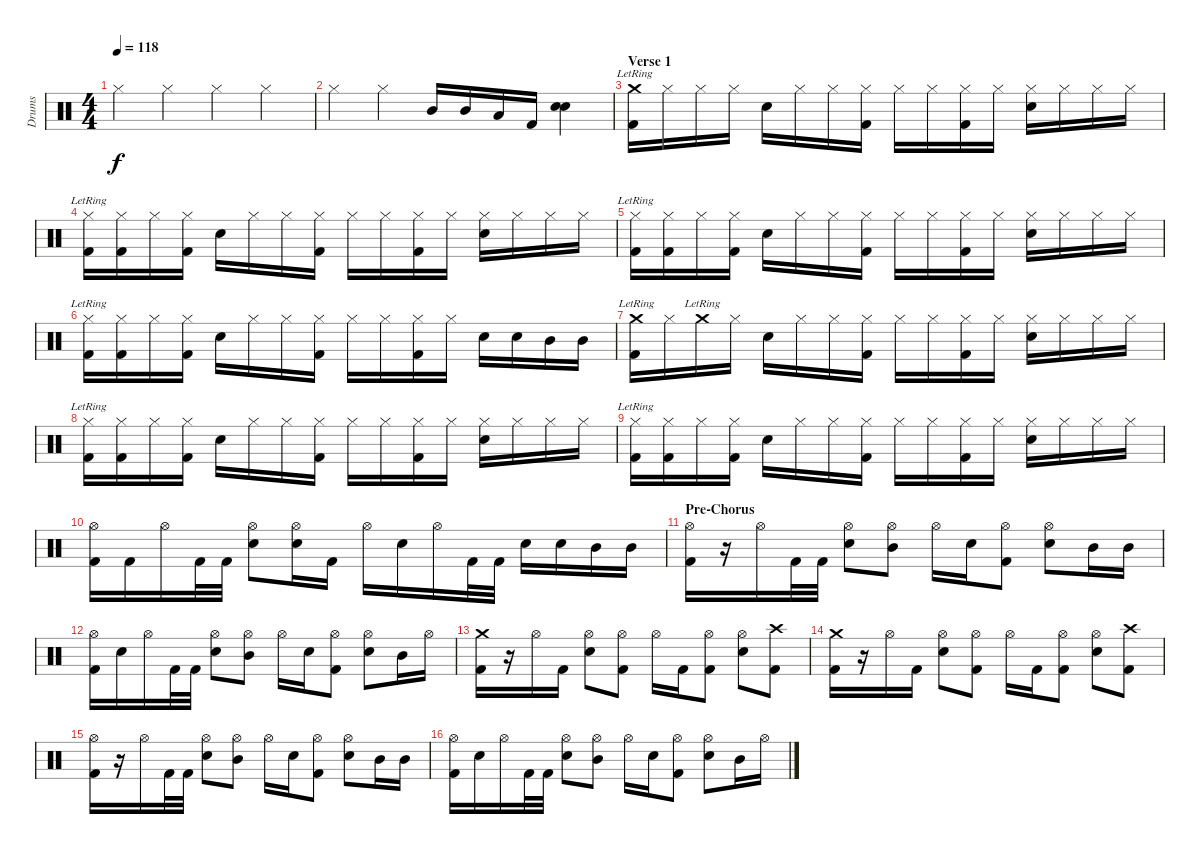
\track ("Drums" "Drums") {instrument percussion}
\staff {score}
\articulation defaults
\ts (4 4)
\tempo 118
\clef neutral
\ks c "Hi-Hat (closed)".4{dy f} "Hi-Hat (closed)".4 "Hi-Hat (closed)".4 "Hi-Hat (closed)".4
|
"Hi-Hat (closed)".4 "Hi-Hat (closed)".4 "Mid Tom (hit)".16 "Mid Tom (hit)".16 "Low Tom (hit)".16 "Kick (hit) 2".16 ("Electric Snare (hit)" "Electric Snare (hit)").4 |
\section ("" "Verse 1")
("Crash medium (hit)"{lr} "Kick (hit) 2").16 "Hi-Hat (closed)".16 "Hi-Hat (closed)".16 "Hi-Hat (closed)".16 "Electric Snare (hit)".16 "Hi-Hat (closed)".16 "Hi-Hat (closed)".16 ("Hi-Hat (closed)" "Kick (hit) 2").16 "Hi-Hat (closed)".16 "Hi-Hat (closed)".16 ("Hi-Hat (closed)" "Kick (hit) 2").16 "Hi-Hat (closed)".16 ("Hi-Hat (closed)" "Electric Snare (hit)").16 "Hi-Hat (closed)".16 "Hi-Hat (closed)".16 "Hi-Hat (closed)".16 |
("Hi-Hat (closed)"{lr} "Kick (hit) 2").16 ("Hi-Hat (closed)" "Kick (hit) 2").16 "Hi-Hat (closed)".16 ("Hi-Hat (closed)" "Kick (hit) 2").16 "Electric Snare (hit)".16 "Hi-Hat (closed)".16 "Hi-Hat (closed)".16 ("Hi-Hat (closed)" "Kick (hit) 2").16 "Hi-Hat (closed)".16 "Hi-Hat (closed)".16 ("Hi-Hat (closed)" "Kick (hit) 2").16 "Hi-Hat (closed)".16 ("Hi-Hat (closed)" "Electric Snare (hit)").16 "Hi-Hat (closed)".16 "Hi-Hat (closed)".16 "Hi-Hat (closed)".16 |
("Hi-Hat (closed)"{lr} "Kick (hit) 2").16 ("Hi-Hat (closed)" "Kick (hit) 2").16 "Hi-Hat (closed)".16 ("Hi-Hat (closed)" "Kick (hit) 2").16 "Electric Snare (hit)".16 "Hi-Hat (closed)".16 "Hi-Hat (closed)".16 ("Hi-Hat (closed)" "Kick (hit) 2").16 "Hi-Hat (closed)".16 "Hi-Hat (closed)".16 ("Hi-Hat (closed)" "Kick (hit) 2").16 "Hi-Hat (closed)".16 ("Hi-Hat (closed)" "Electric Snare (hit)").16 "Hi-Hat (closed)".16 "Hi-Hat (closed)".16 "Hi-Hat (closed)".16 |
("Hi-Hat (closed)"{lr} "Kick (hit) 2").16 ("Hi-Hat (closed)" "Kick (hit) 2").16 "Hi-Hat (closed)".16 ("Hi-Hat (closed)" "Kick (hit) 2").16 "Electric Snare (hit)".16 "Hi-Hat (closed)".16 "Hi-Hat (closed)".16 ("Hi-Hat (closed)" "Kick (hit) 2").16 "Hi-Hat (closed)".16 "Hi-Hat (closed)".16 ("Hi-Hat (closed)" "Kick (hit) 2").16 "Hi-Hat (closed)".16 "Electric Snare (hit)".16 "Electric Snare (hit)".16 "Mid Tom (hit)".16 "Mid Tom (hit)".16 |
("Crash medium (hit)"{lr} "Kick (hit) 2").16 "Hi-Hat (closed)".16 "Crash medium (hit)"{lr}.16 "Hi-Hat (closed)".16 "Electric Snare (hit)".16 "Hi-Hat (closed)".16 "Hi-Hat (closed)".16 ("Hi-Hat (closed)" "Kick (hit) 2").16 "Hi-Hat (closed)".16 "Hi-Hat (closed)".16 ("Hi-Hat (closed)" "Kick (hit) 2").16 "Hi-Hat (closed)".16 ("Hi-Hat (closed)" "Electric Snare (hit)").16 "Hi-Hat (closed)".16 "Hi-Hat (closed)".16 "Hi-Hat (closed)".16 |
("Hi-Hat (closed)"{lr} "Kick (hit) 2").16 ("Hi-Hat (closed)" "Kick (hit) 2").16 "Hi-Hat (closed)".16 ("Hi-Hat (closed)" "Kick (hit) 2").16 "Electric Snare (hit)".16 "Hi-Hat (closed)".16 "Hi-Hat (closed)".16 ("Hi-Hat (closed)" "Kick (hit) 2").16 "Hi-Hat (closed)".16 "Hi-Hat (closed)".16 ("Hi-Hat (closed)" "Kick (hit) 2").16 "Hi-Hat (closed)".16 ("Hi-Hat (closed)" "Electric Snare (hit)").16 "Hi-Hat (closed)".16 "Hi-Hat (closed)".16 "Hi-Hat (closed)".16 |
("Hi-Hat (closed)"{lr} "Kick (hit) 2").16 ("Hi-Hat (closed)" "Kick (hit) 2").16 "Hi-Hat (closed)".16 ("Hi-Hat (closed)" "Kick (hit) 2").16 "Electric Snare (hit)".16 "Hi-Hat (closed)".16 "Hi-Hat (closed)".16 ("Hi-Hat (closed)" "Kick (hit) 2").16 "Hi-Hat (closed)".16 "Hi-Hat (closed)".16 ("Hi-Hat (closed)" "Kick (hit) 2").16 "Hi-Hat (closed)".16 ("Hi-Hat (closed)" "Electric Snare (hit)").16 "Hi-Hat (closed)".16 "Hi-Hat (closed)".16 "Hi-Hat (closed)".16 |
("Hi-Hat (open)" "Kick (hit) 2").16 "Kick (hit) 2".16 "Hi-Hat (open)".16 "Kick (hit) 2".32 "Kick (hit) 2".32 ("Hi-Hat (open)" "Electric Snare (hit)").8 ("Hi-Hat (open)" "Electric Snare (hit)").16 "Kick (hit) 2".16 "Hi-Hat (open)".16 "Electric Snare (hit)".16 "Hi-Hat (open)".16 "Kick (hit) 2".32 "Kick (hit) 2".32 "Electric Snare (hit)".16 "Electric Snare (hit)".16 "Mid Tom (hit)".16 "Mid Tom (hit)".16 |
\section ("" "Pre-Chorus")
("Hi-Hat (open)" "Kick (hit) 2").16 r.16 "Hi-Hat (open)".16 "Kick (hit) 2".32 "Kick (hit) 2".32 ("Hi-Hat (open)" "Electric Snare (hit)").8 ("Hi-Hat (open)" "Mid Tom (hit)").8 "Hi-Hat (open)".16 "Electric Snare (hit)".16 ("Hi-Hat (open)" "Kick (hit) 2").8 ("Hi-Hat (open)" "Electric Snare (hit)").8 "Mid Tom (hit)".16 "Mid Tom (hit)".16 |
("Hi-Hat (open)" "Kick (hit) 2").16 "Electric Snare (hit)".16 "Hi-Hat (open)".16 "Kick (hit) 2".32 "Kick (hit) 2".32 ("Hi-Hat (open)" "Electric Snare (hit)").8 ("Hi-Hat (open)" "Mid Tom (hit)").8 "Hi-Hat (open)".16 "Electric Snare (hit)".16 ("Hi-Hat (open)" "Kick (hit) 2").8 ("Hi-Hat (open)" "Electric Snare (hit)").8 "Mid Tom (hit)".16 "Hi-Hat (open)".16 |
("Crash medium (hit)" "Kick (hit) 2").16 r.16 "Hi-Hat (open)".16 "Kick (hit) 2".16 ("Hi-Hat (open)" "Electric Snare (hit)").8 ("Hi-Hat (open)" "Kick (hit) 2").8 "Hi-Hat (open)".16 "Kick (hit) 2".16 ("Hi-Hat (open)" "Kick (hit) 2").8 ("Hi-Hat (open)" "Electric Snare (hit)").8 ("Crash high (hit)" "Kick (hit) 2").8 |
("Crash medium (hit)" "Kick (hit) 2").16 r.16 "Hi-Hat (open)".16 "Kick (hit) 2".16 ("Hi-Hat (open)" "Electric Snare (hit)").8 ("Hi-Hat (open)" "Kick (hit) 2").8 "Hi-Hat (open)".16 "Kick (hit) 2".16 ("Hi-Hat (open)" "Kick (hit) 2").8 ("Hi-Hat (open)" "Electric Snare (hit)").8 ("Crash high (hit)" "Kick (hit) 2").8 |
("Hi-Hat (open)" "Kick (hit) 2").16 r.16 "Hi-Hat (open)".16 "Kick (hit) 2".32 "Kick (hit) 2".32 ("Hi-Hat (open)" "Electric Snare (hit)").8 ("Hi-Hat (open)" "Mid Tom (hit)").8 "Hi-Hat (open)".16 "Electric Snare (hit)".16 ("Hi-Hat (open)" "Kick (hit) 2").8 ("Hi-Hat (open)" "Electric Snare (hit)").8 "Mid Tom (hit)".16 "Mid Tom (hit)".16 |
("Hi-Hat (open)" "Kick (hit) 2").16 "Electric Snare (hit)".16 "Hi-Hat (open)".16 "Kick (hit) 2".32 "Kick (hit) 2".32 ("Hi-Hat (open)" "Electric Snare (hit)").8 ("Hi-Hat (open)" "Mid Tom (hit)").8 "Hi-Hat (open)".16 "Electric Snare (hit)".16 ("Hi-Hat (open)" "Kick (hit) 2").8 ("Hi-Hat (open)" "Electric Snare (hit)").8 "Mid Tom (hit)".16 "Hi-Hat (open)".16
